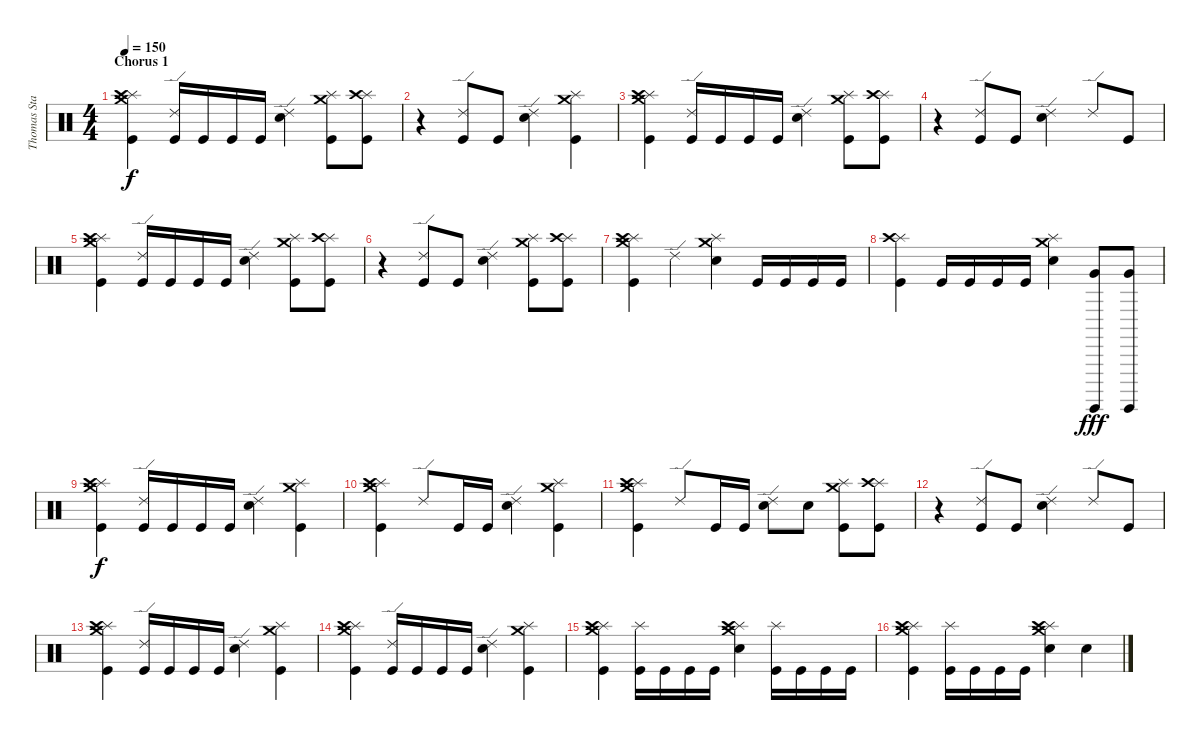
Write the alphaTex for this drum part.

\track ("Thomas Stauch" "Thomas Sta") {instrument percussion}
\staff {score}
\articulation defaults
\ts (4 4)
\section ("" "Chorus 1")
\tempo 150
\clef neutral
\ks c
("Crash medium (hit)" "Splash (hit)" "Crash high (hit)" "Kick (hit)").4{dy f} ("Ride (edge) 2" "Kick (hit)").16 "Kick (hit)".16 "Kick (hit)".16 "Kick (hit)".16 ("Ride (edge) 2" "Electric Snare (hit)").4 ("Crash medium (hit)" "Splash (hit)" "Kick (hit)").8 ("Splash (hit)" "Crash high (hit)" "Kick (hit)").8 |
r.4 ("Ride (edge) 2" "Kick (hit)").8 "Kick (hit)".8 ("Ride (edge) 2" "Electric Snare (hit)").4 ("Crash medium (hit)" "Splash (hit)" "Kick (hit)").4 |
("Crash medium (hit)" "Splash (hit)" "Crash high (hit)" "Kick (hit)").4 ("Ride (edge) 2" "Kick (hit)").16 "Kick (hit)".16 "Kick (hit)".16 "Kick (hit)".16 ("Ride (edge) 2" "Electric Snare (hit)").4 ("Crash medium (hit)" "Splash (hit)" "Kick (hit)").8 ("Splash (hit)" "Crash high (hit)" "Kick (hit)").8 |
r.4 ("Ride (edge) 2" "Kick (hit)").8 "Kick (hit)".8 ("Ride (edge) 2" "Electric Snare (hit)").4 "Ride (edge) 2".8 "Kick (hit)".8 |
("Crash medium (hit)" "Splash (hit)" "Crash high (hit)" "Kick (hit)").4 ("Ride (edge) 2" "Kick (hit)").16 "Kick (hit)".16 "Kick (hit)".16 "Kick (hit)".16 ("Ride (edge) 2" "Electric Snare (hit)").4 ("Crash medium (hit)" "Splash (hit)" "Kick (hit)").8 ("Splash (hit)" "Crash high (hit)" "Kick (hit)").8 |
r.4 ("Ride (edge) 2" "Kick (hit)").8 "Kick (hit)".8 ("Ride (edge) 2" "Electric Snare (hit)").4 ("Crash medium (hit)" "Splash (hit)" "Kick (hit)").8 ("Splash (hit)" "Crash high (hit)" "Kick (hit)").8 |
("Crash medium (hit)" "Splash (hit)" "Crash high (hit)" "Kick (hit)").4 "Ride (edge) 2".4 ("Crash medium (hit)" "Splash (hit)" "Electric Snare (hit)").4 "Kick (hit)".16 "Kick (hit)".16 "Kick (hit)".16 "Kick (hit)".16 |
("Splash (hit)" "Crash high (hit)" "Kick (hit)").4 "Kick (hit)".16 "Kick (hit)".16 "Kick (hit)".16 "Kick (hit)".16 ("Crash medium (hit)" "Splash (hit)" "Electric Snare (hit)").4 ("Surdo (hit)" "Very Low Tom (hit)").8{dy fff} ("Surdo (hit)" "Very Low Tom (hit)").8 |
("Crash medium (hit)" "Splash (hit)" "Crash high (hit)" "Kick (hit)").4{dy f} ("Ride (edge) 2" "Kick (hit)").16 "Kick (hit)".16 "Kick (hit)".16 "Kick (hit)".16 ("Ride (edge) 2" "Electric Snare (hit)").4 ("Crash medium (hit)" "Splash (hit)" "Kick (hit)").4 |
("Crash medium (hit)" "Splash (hit)" "Crash high (hit)" "Kick (hit)").4 "Ride (edge) 2".8 "Kick (hit)".16 "Kick (hit)".16 ("Ride (edge) 2" "Electric Snare (hit)").4 ("Crash medium (hit)" "Splash (hit)" "Kick (hit)").4 |
("Crash medium (hit)" "Splash (hit)" "Crash high (hit)" "Kick (hit)").4 "Ride (edge) 2".8 "Kick (hit)".16 "Kick (hit)".16 ("Ride (edge) 2" "Electric Snare (hit)").8 "Electric Snare (hit)".8 ("Crash medium (hit)" "Splash (hit)" "Kick (hit)").8 ("Splash (hit)" "Crash high (hit)" "Kick (hit)").8 |
r.4 ("Ride (edge) 2" "Kick (hit)").8 "Kick (hit)".8 ("Ride (edge) 2" "Electric Snare (hit)").4 "Ride (edge) 2".8 "Kick (hit)".8 |
("Crash medium (hit)" "Splash (hit)" "Crash high (hit)" "Kick (hit)").4 ("Ride (edge) 2" "Kick (hit)").16 "Kick (hit)".16 "Kick (hit)".16 "Kick (hit)".16 ("Ride (edge) 2" "Electric Snare (hit)").4 ("Crash medium (hit)" "Splash (hit)" "Kick (hit)").4 |
("Crash medium (hit)" "Splash (hit)" "Crash high (hit)" "Kick (hit)").4 ("Ride (edge) 2" "Kick (hit)").16 "Kick (hit)".16 "Kick (hit)".16 "Kick (hit)".16 ("Ride (edge) 2" "Electric Snare (hit)").4 ("Crash medium (hit)" "Splash (hit)" "Kick (hit)").4 |
("Crash medium (hit)" "Splash (hit)" "Crash high (hit)" "Kick (hit)").4 ("Splash (hit)" "Kick (hit)").16 "Kick (hit)".16 "Kick (hit)".16 "Kick (hit)".16 ("Crash medium (hit)" "Splash (hit)" "Crash high (hit)" "Electric Snare (hit)").4 ("Splash (hit)" "Kick (hit)").16 "Kick (hit)".16 "Kick (hit)".16 "Kick (hit)".16 |
("Crash medium (hit)" "Splash (hit)" "Crash high (hit)" "Kick (hit)").4 ("Splash (hit)" "Kick (hit)").16 "Kick (hit)".16 "Kick (hit)".16 "Kick (hit)".16 ("Crash medium (hit)" "Splash (hit)" "Crash high (hit)" "Electric Snare (hit)").4 "Electric Snare (hit)".4
